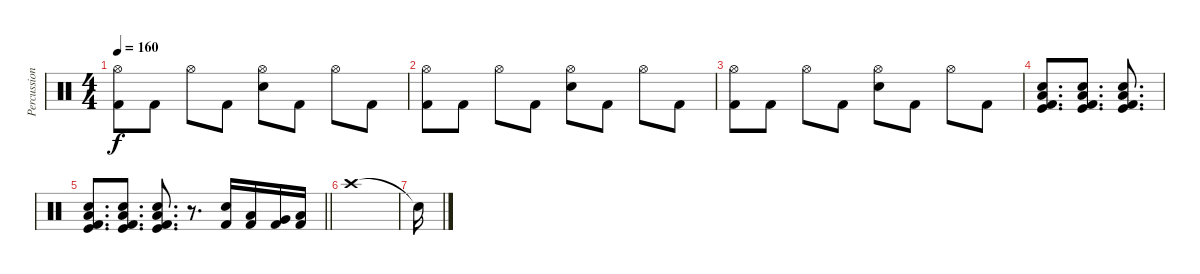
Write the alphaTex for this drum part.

\track ("Percussion" "Percussion") {instrument percussion}
\staff {score}
\articulation defaults
\ts (4 4)
\tempo 160
\clef neutral
\ks c
("Hi-Hat (open)" "Kick (hit) 2").8{dy f} "Kick (hit) 2".8 "Hi-Hat (open)".8 "Kick (hit) 2".8 ("Hi-Hat (open)" "Snare (hit) 2").8 "Kick (hit) 2".8 "Hi-Hat (open)".8 "Kick (hit) 2".8 |
("Hi-Hat (open)" "Kick (hit) 2").8 "Kick (hit) 2".8 "Hi-Hat (open)".8 "Kick (hit) 2".8 ("Hi-Hat (open)" "Snare (hit) 2").8 "Kick (hit) 2".8 "Hi-Hat (open)".8 "Kick (hit) 2".8 |
("Hi-Hat (open)" "Kick (hit) 2").8 "Kick (hit) 2".8 "Hi-Hat (open)".8 "Kick (hit) 2".8 ("Hi-Hat (open)" "Snare (hit) 2").8 "Kick (hit) 2".8 "Hi-Hat (open)".8 "Kick (hit) 2".8 |
("Low Floor Tom (hit)" "Electric Snare (hit)" "Kick (hit) 2" "Kick (hit)").8{d} ("Low Floor Tom (hit)" "Electric Snare (hit)" "Kick (hit) 2" "Kick (hit)").8{d} ("Low Floor Tom (hit)" "Electric Snare (hit)" "Kick (hit) 2" "Kick (hit)").8{d} |
\barLineRight lightlight
("Low Floor Tom (hit)" "Electric Snare (hit)" "Kick (hit) 2" "Kick (hit)").8{d} ("Low Floor Tom (hit)" "Electric Snare (hit)" "Kick (hit) 2" "Kick (hit)").8{d} ("Low Floor Tom (hit)" "Electric Snare (hit)" "Kick (hit) 2" "Kick (hit)").8{d} r.8{d} ("Electric Snare (hit)" "Kick (hit) 2").16 ("Low Floor Tom (hit)" "Kick (hit) 2").16 ("Very Low Tom (hit)" "Kick (hit) 2").16 ("Low Tom (hit)" "Kick (hit) 2").16 |
"Crash high (hit)".1 |
"Snare (hit)"{t}.16
